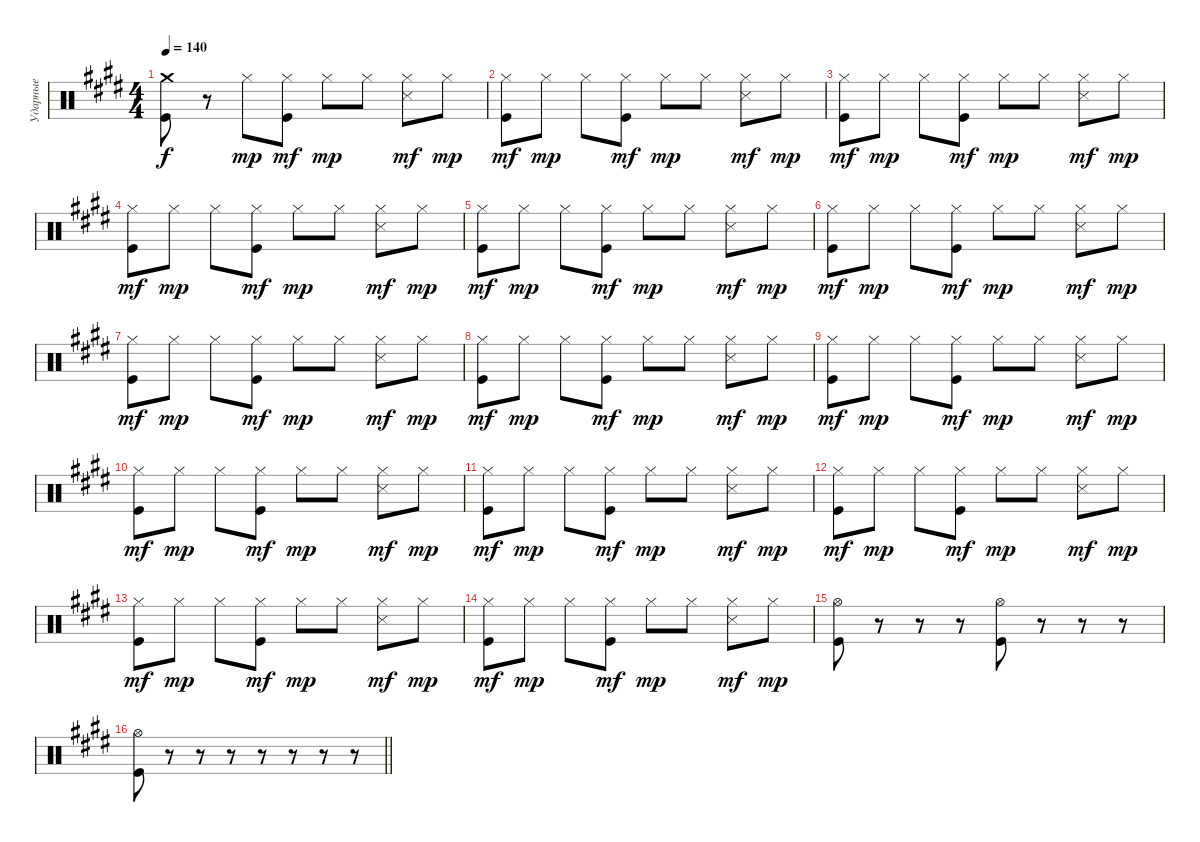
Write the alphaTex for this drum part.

\track ("Ударные" "Ударные") {instrument percussion}
\staff {score}
\articulation defaults
\ts (4 4)
\section ("" " ")
\tempo 140
\clef neutral
\ks e
("Crash medium (hit)" "Kick (hit)").8{dy f} r.8 "Hi-Hat (closed)".8{dy mp} ("Hi-Hat (closed)" "Kick (hit)").8{dy mf} "Hi-Hat (closed)".8{dy mp} "Hi-Hat (closed)".8 ("Hi-Hat (closed)" "Snare (side stick) 3").8{dy mf} "Hi-Hat (closed)".8{dy mp} |
("Hi-Hat (closed)" "Kick (hit)").8{dy mf} "Hi-Hat (closed)".8{dy mp} "Hi-Hat (closed)".8 ("Hi-Hat (closed)" "Kick (hit)").8{dy mf} "Hi-Hat (closed)".8{dy mp} "Hi-Hat (closed)".8 ("Hi-Hat (closed)" "Snare (side stick) 3").8{dy mf} "Hi-Hat (closed)".8{dy mp} |
("Hi-Hat (closed)" "Kick (hit)").8{dy mf} "Hi-Hat (closed)".8{dy mp} "Hi-Hat (closed)".8 ("Hi-Hat (closed)" "Kick (hit)").8{dy mf} "Hi-Hat (closed)".8{dy mp} "Hi-Hat (closed)".8 ("Hi-Hat (closed)" "Snare (side stick) 3").8{dy mf} "Hi-Hat (closed)".8{dy mp} |
("Hi-Hat (closed)" "Kick (hit)").8{dy mf} "Hi-Hat (closed)".8{dy mp} "Hi-Hat (closed)".8 ("Hi-Hat (closed)" "Kick (hit)").8{dy mf} "Hi-Hat (closed)".8{dy mp} "Hi-Hat (closed)".8 ("Hi-Hat (closed)" "Snare (side stick) 3").8{dy mf} "Hi-Hat (closed)".8{dy mp} |
("Hi-Hat (closed)" "Kick (hit)").8{dy mf} "Hi-Hat (closed)".8{dy mp} "Hi-Hat (closed)".8 ("Hi-Hat (closed)" "Kick (hit)").8{dy mf} "Hi-Hat (closed)".8{dy mp} "Hi-Hat (closed)".8 ("Hi-Hat (closed)" "Snare (side stick) 3").8{dy mf} "Hi-Hat (closed)".8{dy mp} |
("Hi-Hat (closed)" "Kick (hit)").8{dy mf} "Hi-Hat (closed)".8{dy mp} "Hi-Hat (closed)".8 ("Hi-Hat (closed)" "Kick (hit)").8{dy mf} "Hi-Hat (closed)".8{dy mp} "Hi-Hat (closed)".8 ("Hi-Hat (closed)" "Snare (side stick) 3").8{dy mf} "Hi-Hat (closed)".8{dy mp} |
("Hi-Hat (closed)" "Kick (hit)").8{dy mf} "Hi-Hat (closed)".8{dy mp} "Hi-Hat (closed)".8 ("Hi-Hat (closed)" "Kick (hit)").8{dy mf} "Hi-Hat (closed)".8{dy mp} "Hi-Hat (closed)".8 ("Hi-Hat (closed)" "Snare (side stick) 3").8{dy mf} "Hi-Hat (closed)".8{dy mp} |
("Hi-Hat (closed)" "Kick (hit)").8{dy mf} "Hi-Hat (closed)".8{dy mp} "Hi-Hat (closed)".8 ("Hi-Hat (closed)" "Kick (hit)").8{dy mf} "Hi-Hat (closed)".8{dy mp} "Hi-Hat (closed)".8 ("Hi-Hat (closed)" "Snare (side stick) 3").8{dy mf} "Hi-Hat (closed)".8{dy mp} |
("Hi-Hat (closed)" "Kick (hit)").8{dy mf} "Hi-Hat (closed)".8{dy mp} "Hi-Hat (closed)".8 ("Hi-Hat (closed)" "Kick (hit)").8{dy mf} "Hi-Hat (closed)".8{dy mp} "Hi-Hat (closed)".8 ("Hi-Hat (closed)" "Snare (side stick) 3").8{dy mf} "Hi-Hat (closed)".8{dy mp} |
("Hi-Hat (closed)" "Kick (hit)").8{dy mf} "Hi-Hat (closed)".8{dy mp} "Hi-Hat (closed)".8 ("Hi-Hat (closed)" "Kick (hit)").8{dy mf} "Hi-Hat (closed)".8{dy mp} "Hi-Hat (closed)".8 ("Hi-Hat (closed)" "Snare (side stick) 3").8{dy mf} "Hi-Hat (closed)".8{dy mp} |
("Hi-Hat (closed)" "Kick (hit)").8{dy mf} "Hi-Hat (closed)".8{dy mp} "Hi-Hat (closed)".8 ("Hi-Hat (closed)" "Kick (hit)").8{dy mf} "Hi-Hat (closed)".8{dy mp} "Hi-Hat (closed)".8 ("Hi-Hat (closed)" "Snare (side stick) 3").8{dy mf} "Hi-Hat (closed)".8{dy mp} |
("Hi-Hat (closed)" "Kick (hit)").8{dy mf} "Hi-Hat (closed)".8{dy mp} "Hi-Hat (closed)".8 ("Hi-Hat (closed)" "Kick (hit)").8{dy mf} "Hi-Hat (closed)".8{dy mp} "Hi-Hat (closed)".8 ("Hi-Hat (closed)" "Snare (side stick) 3").8{dy mf} "Hi-Hat (closed)".8{dy mp} |
("Hi-Hat (closed)" "Kick (hit)").8{dy mf} "Hi-Hat (closed)".8{dy mp} "Hi-Hat (closed)".8 ("Hi-Hat (closed)" "Kick (hit)").8{dy mf} "Hi-Hat (closed)".8{dy mp} "Hi-Hat (closed)".8 ("Hi-Hat (closed)" "Snare (side stick) 3").8{dy mf} "Hi-Hat (closed)".8{dy mp} |
("Hi-Hat (closed)" "Kick (hit)").8{dy mf} "Hi-Hat (closed)".8{dy mp} "Hi-Hat (closed)".8 ("Hi-Hat (closed)" "Kick (hit)").8{dy mf} "Hi-Hat (closed)".8{dy mp} "Hi-Hat (closed)".8 ("Hi-Hat (closed)" "Snare (side stick) 3").8{dy mf} "Hi-Hat (closed)".8{dy mp} |
("Hi-Hat (open)" "Kick (hit)").8 r.8 r.8 r.8 ("Hi-Hat (open)" "Kick (hit)").8 r.8 r.8 r.8 |
\barLineRight lightlight
("Hi-Hat (open)" "Kick (hit)").8 r.8 r.8 r.8 r.8 r.8 r.8 r.8
